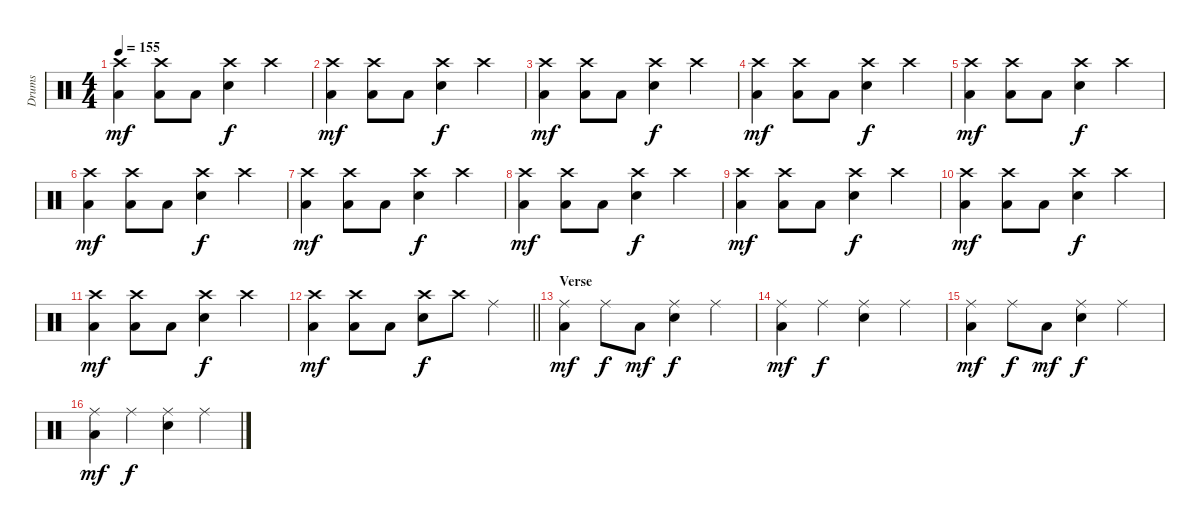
\track ("Drums" "Drums") {instrument percussion}
\staff {score}
\articulation defaults
\ts (4 4)
\tempo 155
\clef neutral
\ks c
("Crash high (hit)" "Low Floor Tom (hit)").4{dy mf} ("Crash high (hit)" "Low Floor Tom (hit)").8 "Low Floor Tom (hit)".8 ("Crash high (hit)" "Electric Snare (hit)").4{dy f} "Crash high (hit)".4 |
("Crash high (hit)" "Low Floor Tom (hit)").4{dy mf} ("Crash high (hit)" "Low Floor Tom (hit)").8 "Low Floor Tom (hit)".8 ("Crash high (hit)" "Electric Snare (hit)").4{dy f} "Crash high (hit)".4 |
("Crash high (hit)" "Low Floor Tom (hit)").4{dy mf} ("Crash high (hit)" "Low Floor Tom (hit)").8 "Low Floor Tom (hit)".8 ("Crash high (hit)" "Electric Snare (hit)").4{dy f} "Crash high (hit)".4 |
("Crash high (hit)" "Low Floor Tom (hit)").4{dy mf} ("Crash high (hit)" "Low Floor Tom (hit)").8 "Low Floor Tom (hit)".8 ("Crash high (hit)" "Electric Snare (hit)").4{dy f} "Crash high (hit)".4 |
("Crash high (hit)" "Low Floor Tom (hit)").4{dy mf} ("Crash high (hit)" "Low Floor Tom (hit)").8 "Low Floor Tom (hit)".8 ("Crash high (hit)" "Electric Snare (hit)").4{dy f} "Crash high (hit)".4 |
("Crash high (hit)" "Low Floor Tom (hit)").4{dy mf} ("Crash high (hit)" "Low Floor Tom (hit)").8 "Low Floor Tom (hit)".8 ("Crash high (hit)" "Electric Snare (hit)").4{dy f} "Crash high (hit)".4 |
("Crash high (hit)" "Low Floor Tom (hit)").4{dy mf} ("Crash high (hit)" "Low Floor Tom (hit)").8 "Low Floor Tom (hit)".8 ("Crash high (hit)" "Electric Snare (hit)").4{dy f} "Crash high (hit)".4 |
("Crash high (hit)" "Low Floor Tom (hit)").4{dy mf} ("Crash high (hit)" "Low Floor Tom (hit)").8 "Low Floor Tom (hit)".8 ("Crash high (hit)" "Electric Snare (hit)").4{dy f} "Crash high (hit)".4 |
("Crash high (hit)" "Low Floor Tom (hit)").4{dy mf} ("Crash high (hit)" "Low Floor Tom (hit)").8 "Low Floor Tom (hit)".8 ("Crash high (hit)" "Electric Snare (hit)").4{dy f} "Crash high (hit)".4 |
("Crash high (hit)" "Low Floor Tom (hit)").4{dy mf} ("Crash high (hit)" "Low Floor Tom (hit)").8 "Low Floor Tom (hit)".8 ("Crash high (hit)" "Electric Snare (hit)").4{dy f} "Crash high (hit)".4 |
("Crash high (hit)" "Low Floor Tom (hit)").4{dy mf} ("Crash high (hit)" "Low Floor Tom (hit)").8 "Low Floor Tom (hit)".8 ("Crash high (hit)" "Electric Snare (hit)").4{dy f} "Crash high (hit)".4 |
\barLineRight lightlight
("Crash high (hit)" "Low Floor Tom (hit)").4{dy mf} ("Crash high (hit)" "Low Floor Tom (hit)").8 "Low Floor Tom (hit)".8 ("Crash high (hit)" "Electric Snare (hit)").8{dy f} "Crash high (hit)".8 "Ride (middle)".4 |
\section ("" "Verse")
("Ride (middle)" "Low Floor Tom (hit)").4{dy mf} "Ride (middle)".8{dy f} "Low Floor Tom (hit)".8{dy mf} ("Ride (middle)" "Electric Snare (hit)").4{dy f} "Ride (middle)".4 |
("Ride (middle)" "Low Floor Tom (hit)").4{dy mf} "Ride (middle)".4{dy f} ("Ride (middle)" "Electric Snare (hit)").4 "Ride (middle)".4 |
("Ride (middle)" "Low Floor Tom (hit)").4{dy mf} "Ride (middle)".8{dy f} "Low Floor Tom (hit)".8{dy mf} ("Ride (middle)" "Electric Snare (hit)").4{dy f} "Ride (middle)".4 |
("Ride (middle)" "Low Floor Tom (hit)").4{dy mf} "Ride (middle)".4{dy f} ("Ride (middle)" "Electric Snare (hit)").4 "Ride (middle)".4
